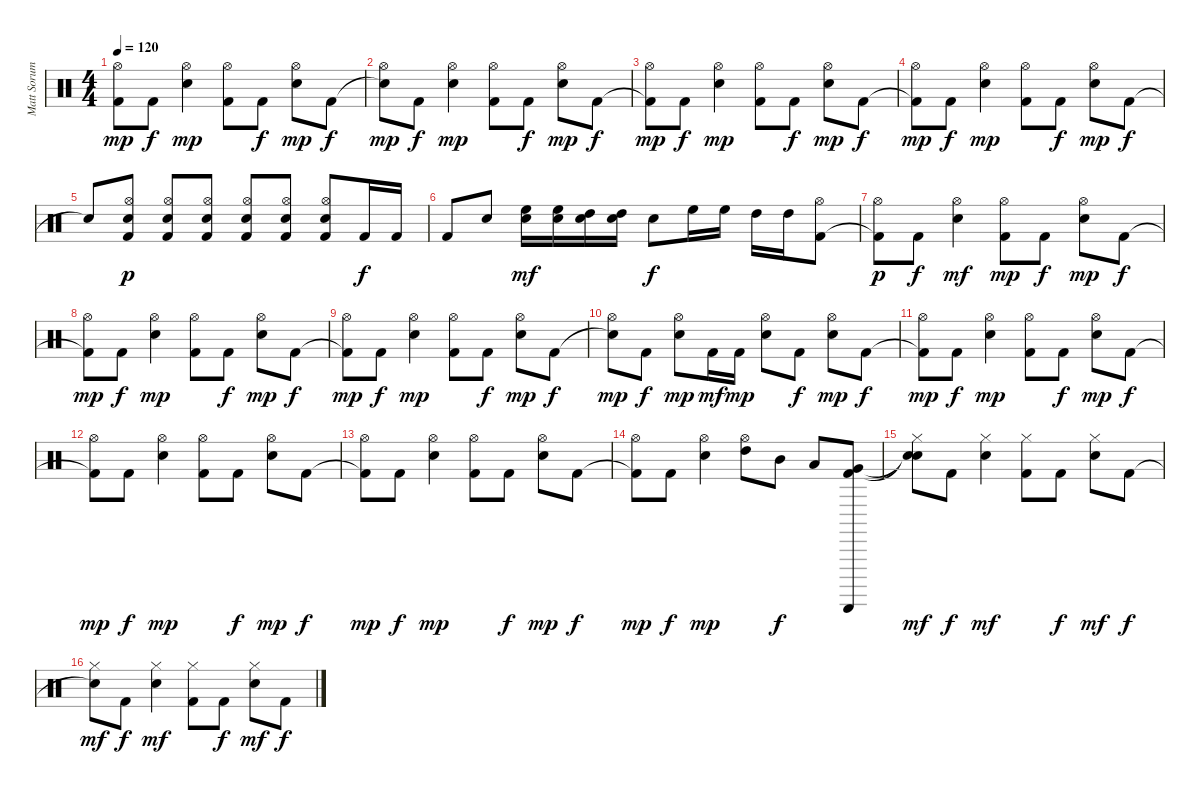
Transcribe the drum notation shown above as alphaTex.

\track ("Matt Sorum" "Matt Sorum") {instrument percussion}
\staff {score}
\articulation defaults
\ts (4 4)
\tempo 120
\clef neutral
\ks c
("Kick (hit) 2"{t} "Hi-Hat (open)").8{dy mp} "Kick (hit) 2".8{dy f} ("Snare (hit) 2" "Hi-Hat (open)").4{dy mp} ("Kick (hit) 2" "Hi-Hat (open)").8 "Kick (hit) 2".8{dy f} ("Snare (hit) 2" "Hi-Hat (open)").8{dy mp} "Kick (hit) 2".8{dy f} |
("Snare (hit)"{t} "Hi-Hat (open)").8{dy mp} "Kick (hit) 2".8{dy f} ("Snare (hit) 2" "Hi-Hat (open)").4{dy mp} ("Kick (hit) 2" "Hi-Hat (open)").8 "Kick (hit) 2".8{dy f} ("Snare (hit) 2" "Hi-Hat (open)").8{dy mp} "Kick (hit) 2".8{dy f} |
("Kick (hit) 2"{t} "Hi-Hat (open)").8{dy mp} "Kick (hit) 2".8{dy f} ("Snare (hit) 2" "Hi-Hat (open)").4{dy mp} ("Kick (hit) 2" "Hi-Hat (open)").8 "Kick (hit) 2".8{dy f} ("Snare (hit) 2" "Hi-Hat (open)").8{dy mp} "Kick (hit) 2".8{dy f} |
("Kick (hit) 2"{t} "Hi-Hat (open)").8{dy mp} "Kick (hit) 2".8{dy f} ("Snare (hit) 2" "Hi-Hat (open)").4{dy mp} ("Kick (hit) 2" "Hi-Hat (open)").8 "Kick (hit) 2".8{dy f} ("Snare (hit) 2" "Hi-Hat (open)").8{dy mp} "Kick (hit) 2".8{dy f} |
"Snare (hit)"{t}.8 ("Kick (hit) 2" "Snare (hit) 2" "Hi-Hat (open)").8{dy p} ("Kick (hit) 2" "Snare (hit) 2" "Hi-Hat (open)").8 ("Kick (hit) 2" "Snare (hit) 2" "Hi-Hat (open)").8 ("Kick (hit) 2" "Snare (hit) 2" "Hi-Hat (open)").8 ("Kick (hit) 2" "Snare (hit) 2" "Hi-Hat (open)").8 ("Kick (hit) 2" "Snare (hit) 2" "Hi-Hat (open)").8 "Kick (hit) 2".16{dy f} "Kick (hit) 2".16 |
"Kick (hit) 2".8 "Snare (hit) 2".8 ("Snare (hit) 2" "High Floor Tom (hit)").16{dy mf} ("Snare (hit) 2" "High Floor Tom (hit)").16 ("Snare (hit) 2" "High Tom (hit)").16 ("Snare (hit) 2" "High Tom (hit)").16 "Snare (hit) 2".8{dy f} "High Floor Tom (hit)".16 "High Floor Tom (hit)".16 "High Tom (hit)".16 "High Tom (hit)".16 ("Kick (hit) 2" "Hi-Hat (open)").8 |
("Kick (hit) 2"{t} "Hi-Hat (open)").8{dy p} "Kick (hit) 2".8{dy f} ("Snare (hit) 2" "Hi-Hat (open)").4{dy mf} ("Kick (hit) 2" "Hi-Hat (open)").8{dy mp} "Kick (hit) 2".8{dy f} ("Snare (hit) 2" "Hi-Hat (open)").8{dy mp} "Kick (hit) 2".8{dy f} |
("Kick (hit) 2"{t} "Hi-Hat (open)").8{dy mp} "Kick (hit) 2".8{dy f} ("Snare (hit) 2" "Hi-Hat (open)").4{dy mp} ("Kick (hit) 2" "Hi-Hat (open)").8 "Kick (hit) 2".8{dy f} ("Snare (hit) 2" "Hi-Hat (open)").8{dy mp} "Kick (hit) 2".8{dy f} |
("Kick (hit) 2"{t} "Hi-Hat (open)").8{dy mp} "Kick (hit) 2".8{dy f} ("Snare (hit) 2" "Hi-Hat (open)").4{dy mp} ("Kick (hit) 2" "Hi-Hat (open)").8 "Kick (hit) 2".8{dy f} ("Snare (hit) 2" "Hi-Hat (open)").8{dy mp} "Kick (hit) 2".8{dy f} |
("Snare (hit)"{t} "Hi-Hat (open)").8{dy mp} "Kick (hit) 2".8{dy f} ("Snare (hit) 2" "Hi-Hat (open)").8{dy mp} "Kick (hit) 2".16{dy mf} "Kick (hit) 2".16{dy mp} ("Snare (hit) 2" "Hi-Hat (open)").8 "Kick (hit) 2".8{dy f} ("Snare (hit) 2" "Hi-Hat (open)").8{dy mp} "Kick (hit) 2".8{dy f} |
("Kick (hit) 2"{t} "Hi-Hat (open)").8{dy mp} "Kick (hit) 2".8{dy f} ("Snare (hit) 2" "Hi-Hat (open)").4{dy mp} ("Kick (hit) 2" "Hi-Hat (open)").8 "Kick (hit) 2".8{dy f} ("Snare (hit) 2" "Hi-Hat (open)").8{dy mp} "Kick (hit) 2".8{dy f} |
("Kick (hit) 2"{t} "Hi-Hat (open)").8{dy mp} "Kick (hit) 2".8{dy f} ("Snare (hit) 2" "Hi-Hat (open)").4{dy mp} ("Kick (hit) 2" "Hi-Hat (open)").8 "Kick (hit) 2".8{dy f} ("Snare (hit) 2" "Hi-Hat (open)").8{dy mp} "Kick (hit) 2".8{dy f} |
("Kick (hit) 2"{t} "Hi-Hat (open)").8{dy mp} "Kick (hit) 2".8{dy f} ("Snare (hit) 2" "Hi-Hat (open)").4{dy mp} ("Kick (hit) 2" "Hi-Hat (open)").8 "Kick (hit) 2".8{dy f} ("Snare (hit) 2" "Hi-Hat (open)").8{dy mp} "Kick (hit) 2".8{dy f} |
("Kick (hit) 2"{t} "Hi-Hat (open)").8{dy mp} "Kick (hit) 2".8{dy f} ("Snare (hit) 2" "Hi-Hat (open)").4{dy mp} ("High Tom (hit)" "Hi-Hat (open)").8 "Mid Tom (hit)".8{dy f} "Low Tom (hit)".8 ("Kick (hit) 2" "Very Low Tom (hit)" "Guiro (scrap-return)").8 |
("Snare (hit)"{t} "Snare (hit)"{t} "Hi-Hat (closed)").8{dy mf} "Kick (hit) 2".8{dy f} ("Snare (hit) 2" "Hi-Hat (closed)").4{dy mf} ("Kick (hit) 2" "Hi-Hat (closed)").8 "Kick (hit) 2".8{dy f} ("Snare (hit) 2" "Hi-Hat (closed)").8{dy mf} "Kick (hit) 2".8{dy f} |
("Snare (hit)"{t} "Hi-Hat (closed)").8{dy mf} "Kick (hit) 2".8{dy f} ("Snare (hit) 2" "Hi-Hat (closed)").4{dy mf} ("Kick (hit) 2" "Hi-Hat (closed)").8 "Kick (hit) 2".8{dy f} ("Snare (hit) 2" "Hi-Hat (closed)").8{dy mf} "Kick (hit) 2".8{dy f}
